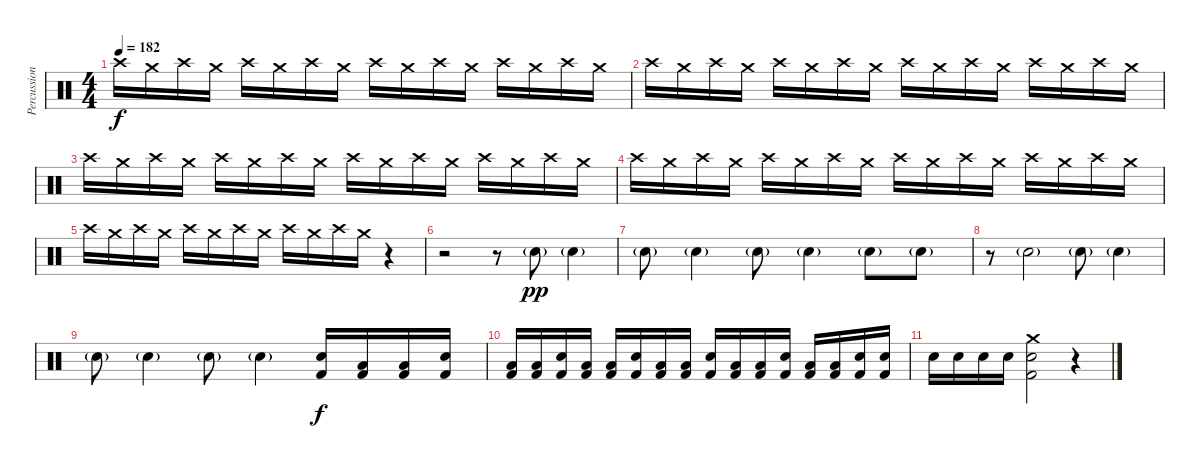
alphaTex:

\track ("Percussions" "Percussion") {instrument percussion}
\staff {score}
\articulation defaults
\ts (4 4)
\tempo 182
\clef neutral
\ks c "Crash high (hit)".16{dy f} "Crash medium (hit)".16 "Crash high (hit)".16 "Crash medium (hit)".16 "Crash high (hit)".16 "Crash medium (hit)".16 "Crash high (hit)".16 "Crash medium (hit)".16 "Crash high (hit)".16 "Crash medium (hit)".16 "Crash high (hit)".16 "Crash medium (hit)".16 "Crash high (hit)".16 "Crash medium (hit)".16 "Crash high (hit)".16 "Crash medium (hit)".16
|
"Crash high (hit)".16 "Crash medium (hit)".16 "Crash high (hit)".16 "Crash medium (hit)".16 "Crash high (hit)".16 "Crash medium (hit)".16 "Crash high (hit)".16 "Crash medium (hit)".16 "Crash high (hit)".16 "Crash medium (hit)".16 "Crash high (hit)".16 "Crash medium (hit)".16 "Crash high (hit)".16 "Crash medium (hit)".16 "Crash high (hit)".16 "Crash medium (hit)".16 |
"Crash high (hit)".16 "Crash medium (hit)".16 "Crash high (hit)".16 "Crash medium (hit)".16 "Crash high (hit)".16 "Crash medium (hit)".16 "Crash high (hit)".16 "Crash medium (hit)".16 "Crash high (hit)".16 "Crash medium (hit)".16 "Crash high (hit)".16 "Crash medium (hit)".16 "Crash high (hit)".16 "Crash medium (hit)".16 "Crash high (hit)".16 "Crash medium (hit)".16 |
"Crash high (hit)".16 "Crash medium (hit)".16 "Crash high (hit)".16 "Crash medium (hit)".16 "Crash high (hit)".16 "Crash medium (hit)".16 "Crash high (hit)".16 "Crash medium (hit)".16 "Crash high (hit)".16 "Crash medium (hit)".16 "Crash high (hit)".16 "Crash medium (hit)".16 "Crash high (hit)".16 "Crash medium (hit)".16 "Crash high (hit)".16 "Crash medium (hit)".16 |
"Crash high (hit)".16 "Crash medium (hit)".16 "Crash high (hit)".16 "Crash medium (hit)".16 "Crash high (hit)".16 "Crash medium (hit)".16 "Crash high (hit)".16 "Crash medium (hit)".16 "Crash high (hit)".16 "Crash medium (hit)".16 "Crash high (hit)".16 "Crash medium (hit)".16 r.4 |
r.2{volume 16} r.8 "Electric Snare (hit)"{g}.8{dy pp} "Electric Snare (hit)"{g}.4 |
"Electric Snare (hit)"{g}.8 "Electric Snare (hit)"{g}.4 "Electric Snare (hit)"{g}.8 "Electric Snare (hit)"{g}.4 "Electric Snare (hit)"{g}.8 "Electric Snare (hit)"{g}.8 |
r.8 "Electric Snare (hit)"{g}.2 "Electric Snare (hit)"{g}.8 "Electric Snare (hit)"{g}.4 |
"Electric Snare (hit)"{g}.8 "Electric Snare (hit)"{g}.4 "Electric Snare (hit)"{g}.8 "Electric Snare (hit)"{g}.4 ("Kick (hit) 2" "Electric Snare (hit)").16{dy f} ("Kick (hit) 2" "Low Floor Tom (hit)").16 ("Kick (hit) 2" "Low Floor Tom (hit)").16 ("Kick (hit) 2" "Electric Snare (hit)").16 |
("Kick (hit) 2" "Low Floor Tom (hit)").16 ("Kick (hit) 2" "Low Floor Tom (hit)").16 ("Kick (hit) 2" "Electric Snare (hit)").16 ("Kick (hit) 2" "Low Floor Tom (hit)").16 ("Kick (hit) 2" "Low Floor Tom (hit)").16 ("Kick (hit) 2" "Electric Snare (hit)").16 ("Kick (hit) 2" "Low Floor Tom (hit)").16 ("Kick (hit) 2" "Low Floor Tom (hit)").16 ("Kick (hit) 2" "Electric Snare (hit)").16 ("Kick (hit) 2" "Low Floor Tom (hit)").16 ("Kick (hit) 2" "Low Floor Tom (hit)").16 ("Kick (hit) 2" "Electric Snare (hit)").16 ("Kick (hit) 2" "Low Floor Tom (hit)").16 ("Kick (hit) 2" "Low Floor Tom (hit)").16 ("Kick (hit) 2" "Electric Snare (hit)").16 ("Kick (hit) 2" "Electric Snare (hit)").16 |
"Electric Snare (hit)".16 "Electric Snare (hit)".16 "Electric Snare (hit)".16 "Electric Snare (hit)".16 ("Kick (hit) 2" "Electric Snare (hit)" "Crash medium (hit)").2 r.4
